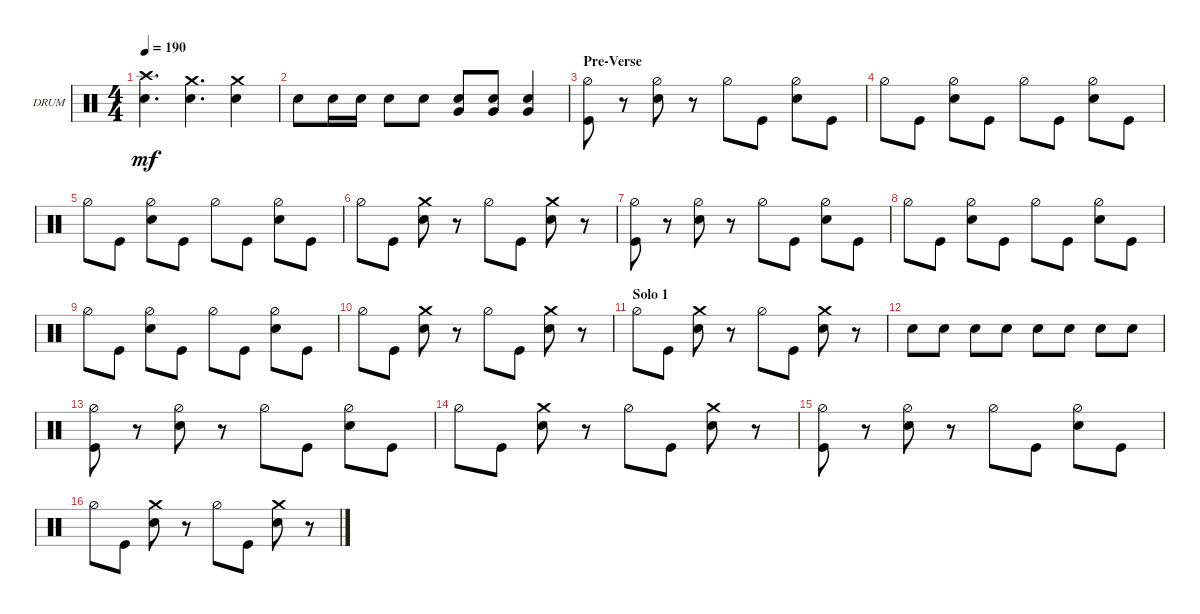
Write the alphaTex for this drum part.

\defaultSystemsLayout 4
\bracketExtendMode groupsimilarinstruments
\firstSystemTrackNameOrientation horizontal
\otherSystemsTrackNameOrientation horizontal
\track ("Drums" "DRUM") {instrument percussion}
\staff {score}
\articulation defaults
\ts (4 4)
\tempo 190
\clef neutral
\ks c
("Crash high (hit)" "Snare (hit) 2").4{d dy mf} ("Snare (hit) 2" "Crash medium (hit)").4{d} ("Crash medium (hit)" "Snare (hit) 2").4 |
"Snare (hit) 2".8 "Snare (hit) 2".16 "Snare (hit) 2".16 "Snare (hit) 2".8 "Snare (hit) 2".8 ("Snare (hit) 2" "Very Low Tom (hit)").8 ("Snare (hit) 2" "Very Low Tom (hit)").8 ("Snare (hit) 2" "Very Low Tom (hit)").4 |
\section ("" "Pre-Verse")
("Kick (hit)" "Hi-Hat (half)").8 r.8 ("Snare (hit) 2" "Hi-Hat (half)").8 r.8 "Hi-Hat (half)".8 "Kick (hit)".8 ("Snare (hit) 2" "Hi-Hat (half)").8 "Kick (hit)".8 |
"Hi-Hat (half)".8 "Kick (hit)".8 ("Snare (hit) 2" "Hi-Hat (half)").8 "Kick (hit)".8 "Hi-Hat (half)".8 "Kick (hit)".8 ("Snare (hit) 2" "Hi-Hat (half)").8 "Kick (hit)".8 |
"Hi-Hat (half)".8 "Kick (hit)".8 ("Snare (hit) 2" "Hi-Hat (half)").8 "Kick (hit)".8 "Hi-Hat (half)".8 "Kick (hit)".8 ("Snare (hit) 2" "Hi-Hat (half)").8 "Kick (hit)".8 |
"Hi-Hat (half)".8 "Kick (hit)".8 ("Snare (hit) 2" "Crash medium (hit)").8 r.8 "Hi-Hat (half)".8 "Kick (hit)".8 ("Snare (hit) 2" "Crash medium (hit)").8 r.8 |
("Kick (hit)" "Hi-Hat (half)").8 r.8 ("Snare (hit) 2" "Hi-Hat (half)").8 r.8 "Hi-Hat (half)".8 "Kick (hit)".8 ("Snare (hit) 2" "Hi-Hat (half)").8 "Kick (hit)".8 |
"Hi-Hat (half)".8 "Kick (hit)".8 ("Snare (hit) 2" "Hi-Hat (half)").8 "Kick (hit)".8 "Hi-Hat (half)".8 "Kick (hit)".8 ("Snare (hit) 2" "Hi-Hat (half)").8 "Kick (hit)".8 |
"Hi-Hat (half)".8 "Kick (hit)".8 ("Snare (hit) 2" "Hi-Hat (half)").8 "Kick (hit)".8 "Hi-Hat (half)".8 "Kick (hit)".8 ("Snare (hit) 2" "Hi-Hat (half)").8 "Kick (hit)".8 |
"Hi-Hat (half)".8 "Kick (hit)".8 ("Snare (hit) 2" "Crash medium (hit)").8 r.8 "Hi-Hat (half)".8 "Kick (hit)".8 ("Snare (hit) 2" "Crash medium (hit)").8 r.8 |
\section ("" "Solo 1")
"Hi-Hat (half)".8 "Kick (hit)".8 ("Snare (hit) 2" "Crash medium (hit)").8 r.8 "Hi-Hat (half)".8 "Kick (hit)".8 ("Snare (hit) 2" "Crash medium (hit)").8 r.8 |
"Snare (hit) 2".8 "Snare (hit) 2".8 "Snare (hit) 2".8 "Snare (hit) 2".8 "Snare (hit) 2".8 "Snare (hit) 2".8 "Snare (hit) 2".8 "Snare (hit) 2".8 |
("Kick (hit)" "Hi-Hat (half)").8 r.8 ("Snare (hit) 2" "Hi-Hat (half)").8 r.8 "Hi-Hat (half)".8 "Kick (hit)".8 ("Snare (hit) 2" "Hi-Hat (half)").8 "Kick (hit)".8 |
"Hi-Hat (half)".8 "Kick (hit)".8 ("Snare (hit) 2" "Crash medium (hit)").8 r.8 "Hi-Hat (half)".8 "Kick (hit)".8 ("Snare (hit) 2" "Crash medium (hit)").8 r.8 |
("Kick (hit)" "Hi-Hat (half)").8 r.8 ("Snare (hit) 2" "Hi-Hat (half)").8 r.8 "Hi-Hat (half)".8 "Kick (hit)".8 ("Snare (hit) 2" "Hi-Hat (half)").8 "Kick (hit)".8 |
"Hi-Hat (half)".8 "Kick (hit)".8 ("Snare (hit) 2" "Crash medium (hit)").8 r.8 "Hi-Hat (half)".8 "Kick (hit)".8 ("Snare (hit) 2" "Crash medium (hit)").8 r.8
